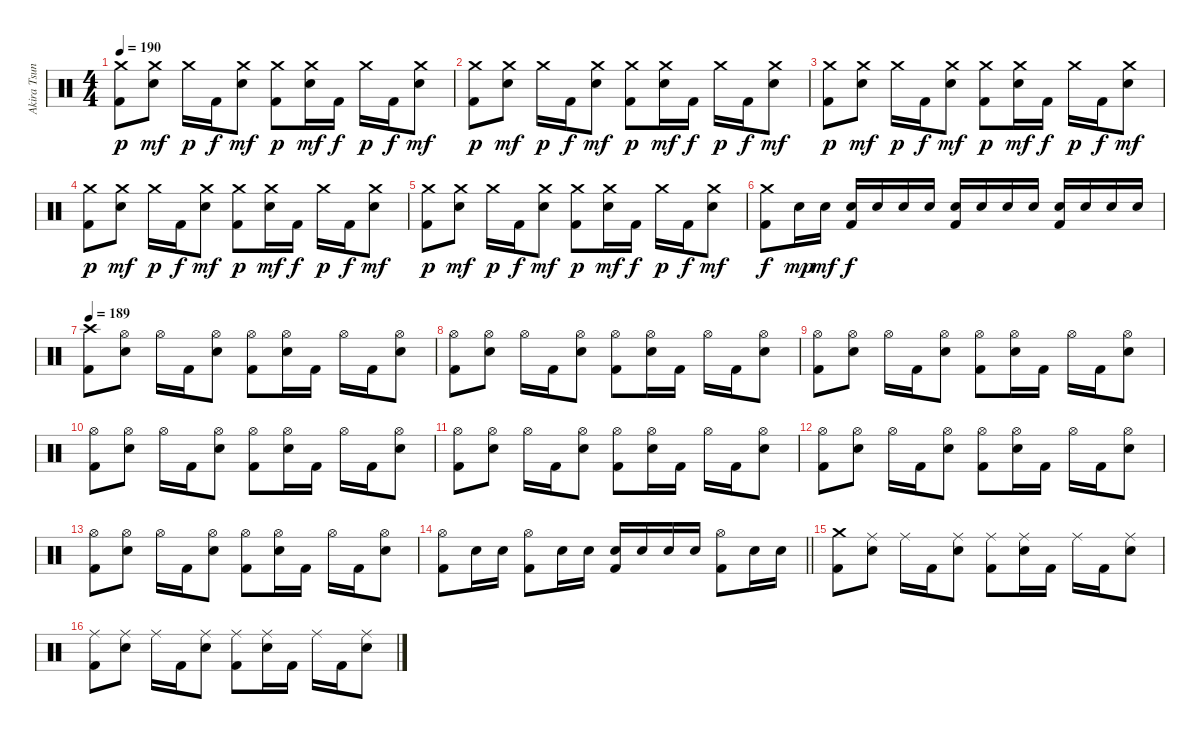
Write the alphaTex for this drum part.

\track ("Akira Tsuneoka" "Akira Tsun") {instrument percussion}
\staff {score}
\articulation defaults
\ts (4 4)
\tempo 190
\clef neutral
\ks c
("Crash medium (hit)" "Kick (hit) 2").8{dy p} ("Crash medium (hit)" "Electric Snare (hit)").8{dy mf} "Crash medium (hit)".16{dy p} "Kick (hit) 2".16{dy f} ("Crash medium (hit)" "Electric Snare (hit)").8{dy mf} ("Crash medium (hit)" "Kick (hit) 2").8{dy p} ("Crash medium (hit)" "Electric Snare (hit)").16{dy mf} "Kick (hit) 2".16{dy f} "Crash medium (hit)".16{dy p} "Kick (hit) 2".16{dy f} ("Crash medium (hit)" "Electric Snare (hit)").8{dy mf} |
("Crash medium (hit)" "Kick (hit) 2").8{dy p} ("Crash medium (hit)" "Electric Snare (hit)").8{dy mf} "Crash medium (hit)".16{dy p} "Kick (hit) 2".16{dy f} ("Crash medium (hit)" "Electric Snare (hit)").8{dy mf} ("Crash medium (hit)" "Kick (hit) 2").8{dy p} ("Crash medium (hit)" "Electric Snare (hit)").16{dy mf} "Kick (hit) 2".16{dy f} "Crash medium (hit)".16{dy p} "Kick (hit) 2".16{dy f} ("Crash medium (hit)" "Electric Snare (hit)").8{dy mf} |
("Crash medium (hit)" "Kick (hit) 2").8{dy p} ("Crash medium (hit)" "Electric Snare (hit)").8{dy mf} "Crash medium (hit)".16{dy p} "Kick (hit) 2".16{dy f} ("Crash medium (hit)" "Electric Snare (hit)").8{dy mf} ("Crash medium (hit)" "Kick (hit) 2").8{dy p} ("Crash medium (hit)" "Electric Snare (hit)").16{dy mf} "Kick (hit) 2".16{dy f} "Crash medium (hit)".16{dy p} "Kick (hit) 2".16{dy f} ("Crash medium (hit)" "Electric Snare (hit)").8{dy mf} |
("Crash medium (hit)" "Kick (hit) 2").8{dy p} ("Crash medium (hit)" "Electric Snare (hit)").8{dy mf} "Crash medium (hit)".16{dy p} "Kick (hit) 2".16{dy f} ("Crash medium (hit)" "Electric Snare (hit)").8{dy mf} ("Crash medium (hit)" "Kick (hit) 2").8{dy p} ("Crash medium (hit)" "Electric Snare (hit)").16{dy mf} "Kick (hit) 2".16{dy f} "Crash medium (hit)".16{dy p} "Kick (hit) 2".16{dy f} ("Crash medium (hit)" "Electric Snare (hit)").8{dy mf} |
("Crash medium (hit)" "Kick (hit) 2").8{dy p} ("Crash medium (hit)" "Electric Snare (hit)").8{dy mf} "Crash medium (hit)".16{dy p} "Kick (hit) 2".16{dy f} ("Crash medium (hit)" "Electric Snare (hit)").8{dy mf} ("Crash medium (hit)" "Kick (hit) 2").8{dy p} ("Crash medium (hit)" "Electric Snare (hit)").16{dy mf} "Kick (hit) 2".16{dy f} "Crash medium (hit)".16{dy p} "Kick (hit) 2".16{dy f} ("Crash medium (hit)" "Electric Snare (hit)").8{dy mf} |
("Crash medium (hit)" "Kick (hit) 2").8{dy f} "Electric Snare (hit)".16{dy mp} "Electric Snare (hit)".16{dy mf} ("Electric Snare (hit)" "Kick (hit) 2").16{dy f} "Electric Snare (hit)".16 "Electric Snare (hit)".16 "Electric Snare (hit)".16 ("Electric Snare (hit)" "Kick (hit) 2").16 "Electric Snare (hit)".16 "Electric Snare (hit)".16 "Electric Snare (hit)".16 ("Electric Snare (hit)" "Kick (hit) 2").16 "Electric Snare (hit)".16 "Electric Snare (hit)".16 "Electric Snare (hit)".16 |
\tempo 189
("Crash high (hit)" "Kick (hit) 2").8 ("Hi-Hat (open)" "Electric Snare (hit)").8 "Hi-Hat (open)".16 "Kick (hit) 2".16 ("Hi-Hat (open)" "Electric Snare (hit)").8 ("Hi-Hat (open)" "Kick (hit) 2").8 ("Hi-Hat (open)" "Electric Snare (hit)").16 "Kick (hit) 2".16 "Hi-Hat (open)".16 "Kick (hit) 2".16 ("Hi-Hat (open)" "Electric Snare (hit)").8 |
("Hi-Hat (open)" "Kick (hit) 2").8 ("Hi-Hat (open)" "Electric Snare (hit)").8 "Hi-Hat (open)".16 "Kick (hit) 2".16 ("Hi-Hat (open)" "Electric Snare (hit)").8 ("Hi-Hat (open)" "Kick (hit) 2").8 ("Hi-Hat (open)" "Electric Snare (hit)").16 "Kick (hit) 2".16 "Hi-Hat (open)".16 "Kick (hit) 2".16 ("Hi-Hat (open)" "Electric Snare (hit)").8 |
("Hi-Hat (open)" "Kick (hit) 2").8 ("Hi-Hat (open)" "Electric Snare (hit)").8 "Hi-Hat (open)".16 "Kick (hit) 2".16 ("Hi-Hat (open)" "Electric Snare (hit)").8 ("Hi-Hat (open)" "Kick (hit) 2").8 ("Hi-Hat (open)" "Electric Snare (hit)").16 "Kick (hit) 2".16 "Hi-Hat (open)".16 "Kick (hit) 2".16 ("Hi-Hat (open)" "Electric Snare (hit)").8 |
("Hi-Hat (open)" "Kick (hit) 2").8 ("Hi-Hat (open)" "Electric Snare (hit)").8 "Hi-Hat (open)".16 "Kick (hit) 2".16 ("Hi-Hat (open)" "Electric Snare (hit)").8 ("Hi-Hat (open)" "Kick (hit) 2").8 ("Hi-Hat (open)" "Electric Snare (hit)").16 "Kick (hit) 2".16 "Hi-Hat (open)".16 "Kick (hit) 2".16 ("Hi-Hat (open)" "Electric Snare (hit)").8 |
("Hi-Hat (open)" "Kick (hit) 2").8 ("Hi-Hat (open)" "Electric Snare (hit)").8 "Hi-Hat (open)".16 "Kick (hit) 2".16 ("Hi-Hat (open)" "Electric Snare (hit)").8 ("Hi-Hat (open)" "Kick (hit) 2").8 ("Hi-Hat (open)" "Electric Snare (hit)").16 "Kick (hit) 2".16 "Hi-Hat (open)".16 "Kick (hit) 2".16 ("Hi-Hat (open)" "Electric Snare (hit)").8 |
("Hi-Hat (open)" "Kick (hit) 2").8 ("Hi-Hat (open)" "Electric Snare (hit)").8 "Hi-Hat (open)".16 "Kick (hit) 2".16 ("Hi-Hat (open)" "Electric Snare (hit)").8 ("Hi-Hat (open)" "Kick (hit) 2").8 ("Hi-Hat (open)" "Electric Snare (hit)").16 "Kick (hit) 2".16 "Hi-Hat (open)".16 "Kick (hit) 2".16 ("Hi-Hat (open)" "Electric Snare (hit)").8 |
("Hi-Hat (open)" "Kick (hit) 2").8 ("Hi-Hat (open)" "Electric Snare (hit)").8 "Hi-Hat (open)".16 "Kick (hit) 2".16 ("Hi-Hat (open)" "Electric Snare (hit)").8 ("Hi-Hat (open)" "Kick (hit) 2").8 ("Hi-Hat (open)" "Electric Snare (hit)").16 "Kick (hit) 2".16 "Hi-Hat (open)".16 "Kick (hit) 2".16 ("Hi-Hat (open)" "Electric Snare (hit)").8 |
\barLineRight lightlight
("Hi-Hat (open)" "Kick (hit) 2").8 "Electric Snare (hit)".16 "Electric Snare (hit)".16 ("Hi-Hat (open)" "Kick (hit) 2").8 "Electric Snare (hit)".16 "Electric Snare (hit)".16 ("Electric Snare (hit)" "Kick (hit) 2").16 "Electric Snare (hit)".16 "Electric Snare (hit)".16 "Electric Snare (hit)".16 ("Hi-Hat (open)" "Kick (hit) 2").8 "Electric Snare (hit)".16 "Electric Snare (hit)".16 |
\section ("" "")
("Crash medium (hit)" "Kick (hit) 2").8 ("Ride (middle)" "Electric Snare (hit)").8 "Ride (middle)".16 "Kick (hit) 2".16 ("Ride (middle)" "Electric Snare (hit)").8 ("Ride (middle)" "Kick (hit) 2").8 ("Ride (middle)" "Electric Snare (hit)").16 "Kick (hit) 2".16 "Ride (middle)".16 "Kick (hit) 2".16 ("Ride (middle)" "Electric Snare (hit)").8 |
("Ride (middle)" "Kick (hit) 2").8 ("Ride (middle)" "Electric Snare (hit)").8 "Ride (middle)".16 "Kick (hit) 2".16 ("Ride (middle)" "Electric Snare (hit)").8 ("Ride (middle)" "Kick (hit) 2").8 ("Ride (middle)" "Electric Snare (hit)").16 "Kick (hit) 2".16 "Ride (middle)".16 "Kick (hit) 2".16 ("Ride (middle)" "Electric Snare (hit)").8
